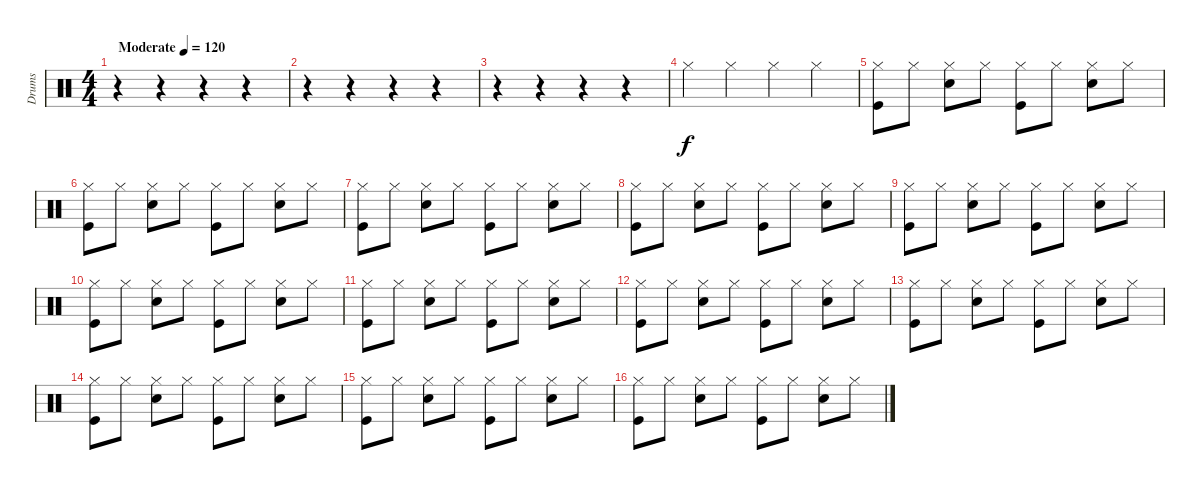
\track ("Drums" "Drums") {instrument percussion}
\staff {score}
\articulation defaults
\ts (4 4)
\tempo (120 "Moderate")
\clef neutral
\ks c
r.4{dy f} r.4 r.4 r.4 |
r.4 r.4 r.4 r.4 |
r.4 r.4 r.4 r.4 |
"Hi-Hat (closed)".4 "Hi-Hat (closed)".4 "Hi-Hat (closed)".4 "Hi-Hat (closed)".4 |
("Kick (hit)" "Hi-Hat (closed)").8 "Hi-Hat (closed)".8 ("Snare (hit) 2" "Hi-Hat (closed)").8 "Hi-Hat (closed)".8 ("Kick (hit)" "Hi-Hat (closed)").8 "Hi-Hat (closed)".8 ("Snare (hit) 2" "Hi-Hat (closed)").8 "Hi-Hat (closed)".8 |
("Kick (hit)" "Hi-Hat (closed)").8 "Hi-Hat (closed)".8 ("Snare (hit) 2" "Hi-Hat (closed)").8 "Hi-Hat (closed)".8 ("Kick (hit)" "Hi-Hat (closed)").8 "Hi-Hat (closed)".8 ("Snare (hit) 2" "Hi-Hat (closed)").8 "Hi-Hat (closed)".8 |
("Kick (hit)" "Hi-Hat (closed)").8 "Hi-Hat (closed)".8 ("Snare (hit) 2" "Hi-Hat (closed)").8 "Hi-Hat (closed)".8 ("Kick (hit)" "Hi-Hat (closed)").8 "Hi-Hat (closed)".8 ("Snare (hit) 2" "Hi-Hat (closed)").8 "Hi-Hat (closed)".8 |
("Kick (hit)" "Hi-Hat (closed)").8 "Hi-Hat (closed)".8 ("Snare (hit) 2" "Hi-Hat (closed)").8 "Hi-Hat (closed)".8 ("Kick (hit)" "Hi-Hat (closed)").8 "Hi-Hat (closed)".8 ("Snare (hit) 2" "Hi-Hat (closed)").8 "Hi-Hat (closed)".8 |
("Kick (hit)" "Hi-Hat (closed)").8 "Hi-Hat (closed)".8 ("Snare (hit) 2" "Hi-Hat (closed)").8 "Hi-Hat (closed)".8 ("Kick (hit)" "Hi-Hat (closed)").8 "Hi-Hat (closed)".8 ("Snare (hit) 2" "Hi-Hat (closed)").8 "Hi-Hat (closed)".8 |
("Kick (hit)" "Hi-Hat (closed)").8 "Hi-Hat (closed)".8 ("Snare (hit) 2" "Hi-Hat (closed)").8 "Hi-Hat (closed)".8 ("Kick (hit)" "Hi-Hat (closed)").8 "Hi-Hat (closed)".8 ("Snare (hit) 2" "Hi-Hat (closed)").8 "Hi-Hat (closed)".8 |
("Kick (hit)" "Hi-Hat (closed)").8 "Hi-Hat (closed)".8 ("Snare (hit) 2" "Hi-Hat (closed)").8 "Hi-Hat (closed)".8 ("Kick (hit)" "Hi-Hat (closed)").8 "Hi-Hat (closed)".8 ("Snare (hit) 2" "Hi-Hat (closed)").8 "Hi-Hat (closed)".8 |
("Kick (hit)" "Hi-Hat (closed)").8 "Hi-Hat (closed)".8 ("Snare (hit) 2" "Hi-Hat (closed)").8 "Hi-Hat (closed)".8 ("Kick (hit)" "Hi-Hat (closed)").8 "Hi-Hat (closed)".8 ("Snare (hit) 2" "Hi-Hat (closed)").8 "Hi-Hat (closed)".8 |
("Kick (hit)" "Hi-Hat (closed)").8 "Hi-Hat (closed)".8 ("Snare (hit) 2" "Hi-Hat (closed)").8 "Hi-Hat (closed)".8 ("Kick (hit)" "Hi-Hat (closed)").8 "Hi-Hat (closed)".8 ("Snare (hit) 2" "Hi-Hat (closed)").8 "Hi-Hat (closed)".8 |
("Kick (hit)" "Hi-Hat (closed)").8 "Hi-Hat (closed)".8 ("Snare (hit) 2" "Hi-Hat (closed)").8 "Hi-Hat (closed)".8 ("Kick (hit)" "Hi-Hat (closed)").8 "Hi-Hat (closed)".8 ("Snare (hit) 2" "Hi-Hat (closed)").8 "Hi-Hat (closed)".8 |
("Kick (hit)" "Hi-Hat (closed)").8 "Hi-Hat (closed)".8 ("Snare (hit) 2" "Hi-Hat (closed)").8 "Hi-Hat (closed)".8 ("Kick (hit)" "Hi-Hat (closed)").8 "Hi-Hat (closed)".8 ("Snare (hit) 2" "Hi-Hat (closed)").8 "Hi-Hat (closed)".8 |
("Kick (hit)" "Hi-Hat (closed)").8 "Hi-Hat (closed)".8 ("Snare (hit) 2" "Hi-Hat (closed)").8 "Hi-Hat (closed)".8 ("Kick (hit)" "Hi-Hat (closed)").8 "Hi-Hat (closed)".8 ("Snare (hit) 2" "Hi-Hat (closed)").8 "Hi-Hat (closed)".8
